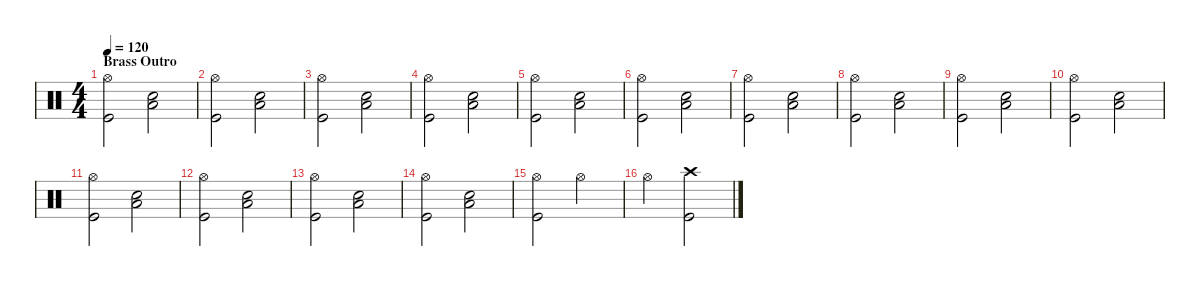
\defaultSystemsLayout 4
\hideDynamics
\bracketExtendMode nobrackets
\singleTrackTrackNamePolicy hidden
\multiTrackTrackNamePolicy hidden
\otherSystemsTrackNameOrientation horizontal
\track ("Drums (Terry Bozzio)" "drm.") {instrument percussion}
\staff {score}
\articulation defaults
\ts (4 4)
\section ("" "Brass Outro")
\tempo 120
\clef neutral
\ks c
("Hi-Hat (open)" "Kick (hit)").2{dy fff beam Down} ("Low Floor Tom (hit)" "Snare (hit) 2").2{beam Down} |
("Hi-Hat (open)" "Kick (hit)").2{beam Down} ("Low Floor Tom (hit)" "Snare (hit) 2").2{beam Down} |
("Hi-Hat (open)" "Kick (hit)").2{beam Down} ("Low Floor Tom (hit)" "Snare (hit) 2").2{beam Down} |
("Hi-Hat (open)" "Kick (hit)").2{beam Down} ("Low Floor Tom (hit)" "Snare (hit) 2").2{beam Down} |
("Hi-Hat (open)" "Kick (hit)").2{beam Down} ("Low Floor Tom (hit)" "Snare (hit) 2").2{beam Down} |
("Hi-Hat (open)" "Kick (hit)").2{beam Down} ("Low Floor Tom (hit)" "Snare (hit) 2").2{beam Down} |
("Hi-Hat (open)" "Kick (hit)").2{beam Down} ("Low Floor Tom (hit)" "Snare (hit) 2").2{beam Down} |
("Hi-Hat (open)" "Kick (hit)").2{beam Down} ("Low Floor Tom (hit)" "Snare (hit) 2").2{beam Down} |
("Hi-Hat (open)" "Kick (hit)").2{beam Down} ("Low Floor Tom (hit)" "Snare (hit) 2").2{beam Down} |
("Hi-Hat (open)" "Kick (hit)").2{beam Down} ("Low Floor Tom (hit)" "Snare (hit) 2").2{beam Down} |
("Hi-Hat (open)" "Kick (hit)").2{beam Down} ("Low Floor Tom (hit)" "Snare (hit) 2").2{beam Down} |
("Hi-Hat (open)" "Kick (hit)").2{beam Down} ("Low Floor Tom (hit)" "Snare (hit) 2").2{beam Down} |
("Hi-Hat (open)" "Kick (hit)").2{beam Down} ("Low Floor Tom (hit)" "Snare (hit) 2").2{beam Down} |
("Hi-Hat (open)" "Kick (hit)").2{beam Down} ("Low Floor Tom (hit)" "Snare (hit) 2").2{beam Down} |
("Hi-Hat (open)" "Kick (hit)").2{beam Down} "Hi-Hat (open)".2{beam Down} |
"Hi-Hat (open)".2{beam Down} ("Crash high (hit)" "Kick (hit)").2{beam Down}
